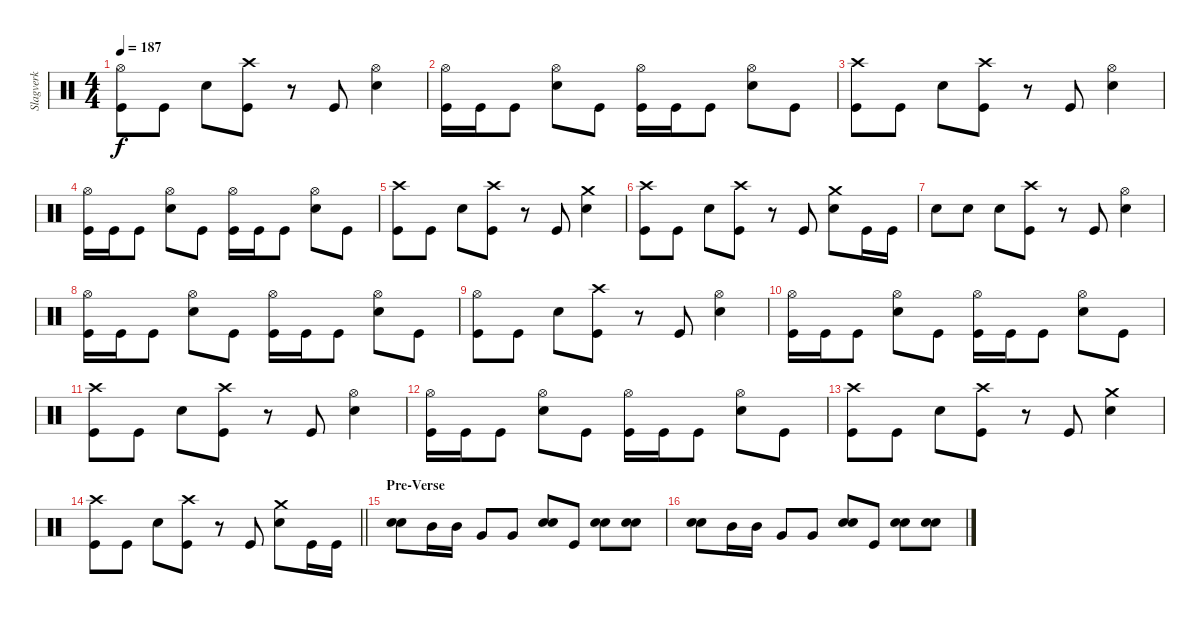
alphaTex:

\track ("Slagverk" "Slagverk") {instrument percussion}
\staff {score}
\articulation defaults
\ts (4 4)
\tempo 187
\clef neutral
\ks c
("Hi-Hat (open)" "Kick (hit)").8{dy f} "Kick (hit)".8 "Electric Snare (hit)".8 ("Crash high (hit)" "Kick (hit)").8 r.8 "Kick (hit)".8 ("Hi-Hat (open)" "Electric Snare (hit)").4 |
("Hi-Hat (open)" "Kick (hit)").16 "Kick (hit)".16 "Kick (hit)".8 ("Hi-Hat (open)" "Electric Snare (hit)").8 "Kick (hit)".8 ("Hi-Hat (open)" "Kick (hit)").16 "Kick (hit)".16 "Kick (hit)".8 ("Hi-Hat (open)" "Electric Snare (hit)").8 "Kick (hit)".8 |
("Crash high (hit)" "Kick (hit)").8 "Kick (hit)".8 "Electric Snare (hit)".8 ("Crash high (hit)" "Kick (hit)").8 r.8 "Kick (hit)".8 ("Hi-Hat (open)" "Electric Snare (hit)").4 |
("Hi-Hat (open)" "Kick (hit)").16 "Kick (hit)".16 "Kick (hit)".8 ("Hi-Hat (open)" "Electric Snare (hit)").8 "Kick (hit)".8 ("Hi-Hat (open)" "Kick (hit)").16 "Kick (hit)".16 "Kick (hit)".8 ("Hi-Hat (open)" "Electric Snare (hit)").8 "Kick (hit)".8 |
("Crash high (hit)" "Kick (hit)").8 "Kick (hit)".8 "Electric Snare (hit)".8 ("Crash high (hit)" "Kick (hit)").8 r.8 "Kick (hit)".8 ("Crash medium (hit)" "Electric Snare (hit)").4 |
("Crash high (hit)" "Kick (hit)").8 "Kick (hit)".8 "Electric Snare (hit)".8 ("Crash high (hit)" "Kick (hit)").8 r.8 "Kick (hit)".8 ("Crash medium (hit)" "Electric Snare (hit)").8 "Kick (hit)".16 "Kick (hit)".16 |
"Electric Snare (hit)".8 "Electric Snare (hit)".8 "Electric Snare (hit)".8 ("Crash high (hit)" "Kick (hit)").8 r.8 "Kick (hit)".8 ("Hi-Hat (open)" "Electric Snare (hit)").4 |
("Hi-Hat (open)" "Kick (hit)").16 "Kick (hit)".16 "Kick (hit)".8 ("Hi-Hat (open)" "Electric Snare (hit)").8 "Kick (hit)".8 ("Hi-Hat (open)" "Kick (hit)").16 "Kick (hit)".16 "Kick (hit)".8 ("Hi-Hat (open)" "Electric Snare (hit)").8 "Kick (hit)".8 |
("Hi-Hat (open)" "Kick (hit)").8 "Kick (hit)".8 "Electric Snare (hit)".8 ("Crash high (hit)" "Kick (hit)").8 r.8 "Kick (hit)".8 ("Hi-Hat (open)" "Electric Snare (hit)").4 |
("Hi-Hat (open)" "Kick (hit)").16 "Kick (hit)".16 "Kick (hit)".8 ("Hi-Hat (open)" "Electric Snare (hit)").8 "Kick (hit)".8 ("Hi-Hat (open)" "Kick (hit)").16 "Kick (hit)".16 "Kick (hit)".8 ("Hi-Hat (open)" "Electric Snare (hit)").8 "Kick (hit)".8 |
("Crash high (hit)" "Kick (hit)").8 "Kick (hit)".8 "Electric Snare (hit)".8 ("Crash high (hit)" "Kick (hit)").8 r.8 "Kick (hit)".8 ("Hi-Hat (open)" "Electric Snare (hit)").4 |
("Hi-Hat (open)" "Kick (hit)").16 "Kick (hit)".16 "Kick (hit)".8 ("Hi-Hat (open)" "Electric Snare (hit)").8 "Kick (hit)".8 ("Hi-Hat (open)" "Kick (hit)").16 "Kick (hit)".16 "Kick (hit)".8 ("Hi-Hat (open)" "Electric Snare (hit)").8 "Kick (hit)".8 |
("Crash high (hit)" "Kick (hit)").8 "Kick (hit)".8 "Electric Snare (hit)".8 ("Crash high (hit)" "Kick (hit)").8 r.8 "Kick (hit)".8 ("Crash medium (hit)" "Electric Snare (hit)").4 |
\barLineRight lightlight
("Crash high (hit)" "Kick (hit)").8 "Kick (hit)".8 "Electric Snare (hit)".8 ("Crash high (hit)" "Kick (hit)").8 r.8 "Kick (hit)".8 ("Crash medium (hit)" "Electric Snare (hit)").8 "Kick (hit)".16 "Kick (hit)".16 |
\section ("" "Pre-Verse")
("Electric Snare (hit)" "Electric Snare (hit)").8 "Mid Tom (hit)".16 "Mid Tom (hit)".16 "Very Low Tom (hit)".8 "Very Low Tom (hit)".8 ("Electric Snare (hit)" "Electric Snare (hit)").8 "Kick (hit)".8 ("Electric Snare (hit)" "Electric Snare (hit)").8 ("Electric Snare (hit)" "Electric Snare (hit)").8 |
("Electric Snare (hit)" "Electric Snare (hit)").8 "Mid Tom (hit)".16 "Mid Tom (hit)".16 "Very Low Tom (hit)".8 "Very Low Tom (hit)".8 ("Electric Snare (hit)" "Electric Snare (hit)").8 "Kick (hit)".8 ("Electric Snare (hit)" "Electric Snare (hit)").8 ("Electric Snare (hit)" "Electric Snare (hit)").8
